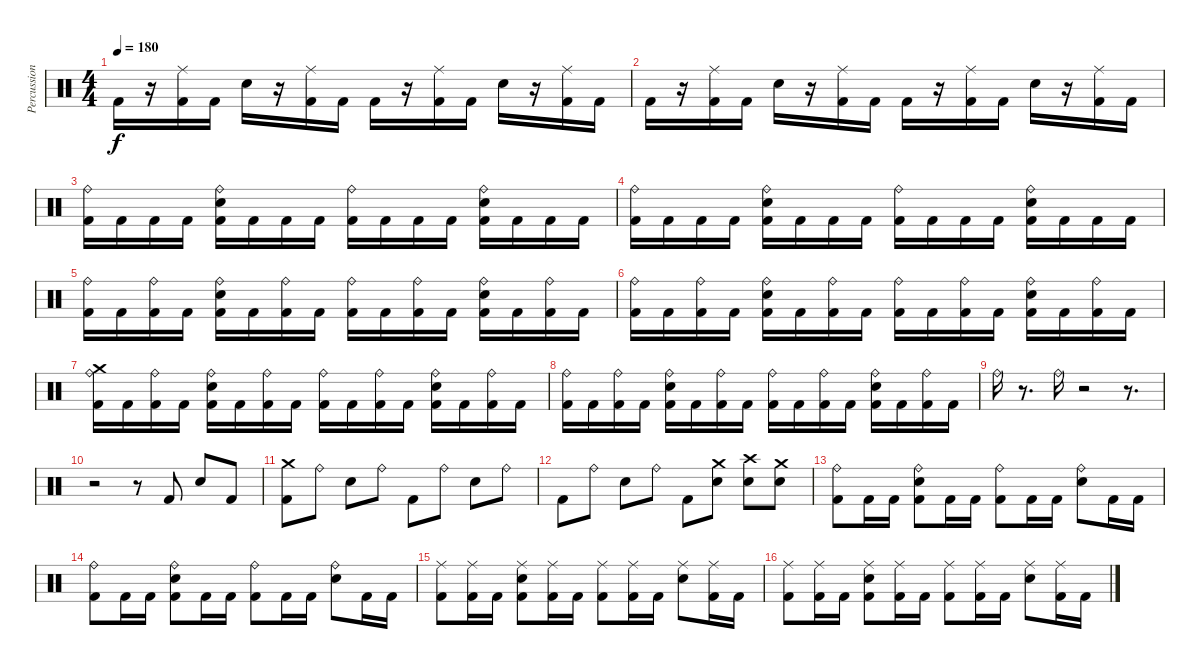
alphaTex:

\track ("Percussion" "Percussion") {instrument percussion}
\staff {score}
\articulation defaults
\ts (4 4)
\tempo 180
\clef neutral
\ks c "Kick (hit) 2".16{dy f}
r.16 ("Ride (middle)" "Kick (hit) 2").16 "Kick (hit) 2".16 "Snare (hit) 2".16 r.16 ("Ride (middle)" "Kick (hit) 2").16 "Kick (hit) 2".16 "Kick (hit) 2".16 r.16 ("Ride (middle)" "Kick (hit) 2").16 "Kick (hit) 2".16 "Snare (hit) 2".16 r.16 ("Ride (middle)" "Kick (hit) 2").16 "Kick (hit) 2".16 |
"Kick (hit) 2".16 r.16 ("Ride (middle)" "Kick (hit) 2").16 "Kick (hit) 2".16 "Snare (hit) 2".16 r.16 ("Ride (middle)" "Kick (hit) 2").16 "Kick (hit) 2".16 "Kick (hit) 2".16 r.16 ("Ride (middle)" "Kick (hit) 2").16 "Kick (hit) 2".16 "Snare (hit) 2".16 r.16 ("Ride (middle)" "Kick (hit) 2").16 "Kick (hit) 2".16 |
("Ride (bell)" "Kick (hit) 2").16 "Kick (hit) 2".16 "Kick (hit) 2".16 "Kick (hit) 2".16 ("Ride (bell)" "Snare (hit) 2" "Kick (hit) 2").16 "Kick (hit) 2".16 "Kick (hit) 2".16 "Kick (hit) 2".16 ("Ride (bell)" "Kick (hit) 2").16 "Kick (hit) 2".16 "Kick (hit) 2".16 "Kick (hit) 2".16 ("Ride (bell)" "Snare (hit) 2" "Kick (hit) 2").16 "Kick (hit) 2".16 "Kick (hit) 2".16 "Kick (hit) 2".16 |
("Ride (bell)" "Kick (hit) 2").16 "Kick (hit) 2".16 "Kick (hit) 2".16 "Kick (hit) 2".16 ("Ride (bell)" "Snare (hit) 2" "Kick (hit) 2").16 "Kick (hit) 2".16 "Kick (hit) 2".16 "Kick (hit) 2".16 ("Ride (bell)" "Kick (hit) 2").16 "Kick (hit) 2".16 "Kick (hit) 2".16 "Kick (hit) 2".16 ("Ride (bell)" "Snare (hit) 2" "Kick (hit) 2").16 "Kick (hit) 2".16 "Kick (hit) 2".16 "Kick (hit) 2".16 |
("Ride (bell)" "Kick (hit) 2").16 "Kick (hit) 2".16 ("Ride (bell)" "Kick (hit) 2").16 "Kick (hit) 2".16 ("Ride (bell)" "Snare (hit) 2" "Kick (hit) 2").16 "Kick (hit) 2".16 ("Ride (bell)" "Kick (hit) 2").16 "Kick (hit) 2".16 ("Ride (bell)" "Kick (hit) 2").16 "Kick (hit) 2".16 ("Ride (bell)" "Kick (hit) 2").16 "Kick (hit) 2".16 ("Ride (bell)" "Snare (hit) 2" "Kick (hit) 2").16 "Kick (hit) 2".16 ("Ride (bell)" "Kick (hit) 2").16 "Kick (hit) 2".16 |
("Ride (bell)" "Kick (hit) 2").16 "Kick (hit) 2".16 ("Ride (bell)" "Kick (hit) 2").16 "Kick (hit) 2".16 ("Ride (bell)" "Snare (hit) 2" "Kick (hit) 2").16 "Kick (hit) 2".16 ("Ride (bell)" "Kick (hit) 2").16 "Kick (hit) 2".16 ("Ride (bell)" "Kick (hit) 2").16 "Kick (hit) 2".16 ("Ride (bell)" "Kick (hit) 2").16 "Kick (hit) 2".16 ("Ride (bell)" "Snare (hit) 2" "Kick (hit) 2").16 "Kick (hit) 2".16 ("Ride (bell)" "Kick (hit) 2").16 "Kick (hit) 2".16 |
("Ride (bell)" "Crash medium (hit)" "Kick (hit) 2").16 "Kick (hit) 2".16 ("Ride (bell)" "Kick (hit) 2").16 "Kick (hit) 2".16 ("Ride (bell)" "Snare (hit) 2" "Kick (hit) 2").16 "Kick (hit) 2".16 ("Ride (bell)" "Kick (hit) 2").16 "Kick (hit) 2".16 ("Ride (bell)" "Kick (hit) 2").16 "Kick (hit) 2".16 ("Ride (bell)" "Kick (hit) 2").16 "Kick (hit) 2".16 ("Ride (bell)" "Snare (hit) 2" "Kick (hit) 2").16 "Kick (hit) 2".16 ("Ride (bell)" "Kick (hit) 2").16 "Kick (hit) 2".16 |
("Ride (bell)" "Kick (hit) 2").16 "Kick (hit) 2".16 ("Ride (bell)" "Kick (hit) 2").16 "Kick (hit) 2".16 ("Ride (bell)" "Snare (hit) 2" "Kick (hit) 2").16 "Kick (hit) 2".16 ("Ride (bell)" "Kick (hit) 2").16 "Kick (hit) 2".16 ("Ride (bell)" "Kick (hit) 2").16 "Kick (hit) 2".16 ("Ride (bell)" "Kick (hit) 2").16 "Kick (hit) 2".16 ("Ride (bell)" "Snare (hit) 2" "Kick (hit) 2").16 "Kick (hit) 2".16 ("Ride (bell)" "Kick (hit) 2").16 "Kick (hit) 2".16 |
"Ride (bell)".16 r.8{d} "Ride (bell)".16 r.2 r.8{d} |
r.2 r.8 "Kick (hit) 2".8 "Snare (hit) 2".8 "Kick (hit) 2".8 |
("Crash medium (hit)" "Kick (hit) 2").8 "Ride (bell)".8 "Snare (hit) 2".8 "Ride (bell)".8 "Kick (hit) 2".8 "Ride (bell)".8 "Snare (hit) 2".8 "Ride (bell)".8 |
"Kick (hit) 2".8 "Ride (bell)".8 "Snare (hit) 2".8 "Ride (bell)".8 "Kick (hit) 2".8 ("Crash medium (hit)" "Snare (hit) 2").8 ("Crash high (hit)" "Snare (hit) 2").8 ("Crash medium (hit)" "Snare (hit) 2").8 |
("Ride (bell)" "Kick (hit) 2").8 "Kick (hit) 2".16 "Kick (hit) 2".16 ("Ride (bell)" "Snare (hit) 2" "Kick (hit) 2").8 "Kick (hit) 2".16 "Kick (hit) 2".16 ("Ride (bell)" "Kick (hit) 2").8 "Kick (hit) 2".16 "Kick (hit) 2".16 ("Ride (bell)" "Snare (hit) 2").8 "Kick (hit) 2".16 "Kick (hit) 2".16 |
("Ride (bell)" "Kick (hit) 2").8 "Kick (hit) 2".16 "Kick (hit) 2".16 ("Ride (bell)" "Snare (hit) 2" "Kick (hit) 2").8 "Kick (hit) 2".16 "Kick (hit) 2".16 ("Ride (bell)" "Kick (hit) 2").8 "Kick (hit) 2".16 "Kick (hit) 2".16 ("Ride (bell)" "Snare (hit) 2").8 "Kick (hit) 2".16 "Kick (hit) 2".16 |
("Ride (middle)" "Kick (hit) 2").8 ("Ride (middle)" "Kick (hit) 2").16 "Kick (hit) 2".16 ("Ride (middle)" "Snare (hit) 2" "Kick (hit) 2").8 ("Ride (middle)" "Kick (hit) 2").16 "Kick (hit) 2".16 ("Ride (middle)" "Kick (hit) 2").8 ("Ride (middle)" "Kick (hit) 2").16 "Kick (hit) 2".16 ("Ride (middle)" "Snare (hit) 2").8 ("Ride (middle)" "Kick (hit) 2").16 "Kick (hit) 2".16 |
("Ride (middle)" "Kick (hit) 2").8 ("Ride (middle)" "Kick (hit) 2").16 "Kick (hit) 2".16 ("Ride (middle)" "Snare (hit) 2" "Kick (hit) 2").8 ("Ride (middle)" "Kick (hit) 2").16 "Kick (hit) 2".16 ("Ride (middle)" "Kick (hit) 2").8 ("Ride (middle)" "Kick (hit) 2").16 "Kick (hit) 2".16 ("Ride (middle)" "Snare (hit) 2").8 ("Ride (middle)" "Kick (hit) 2").16 "Kick (hit) 2".16
